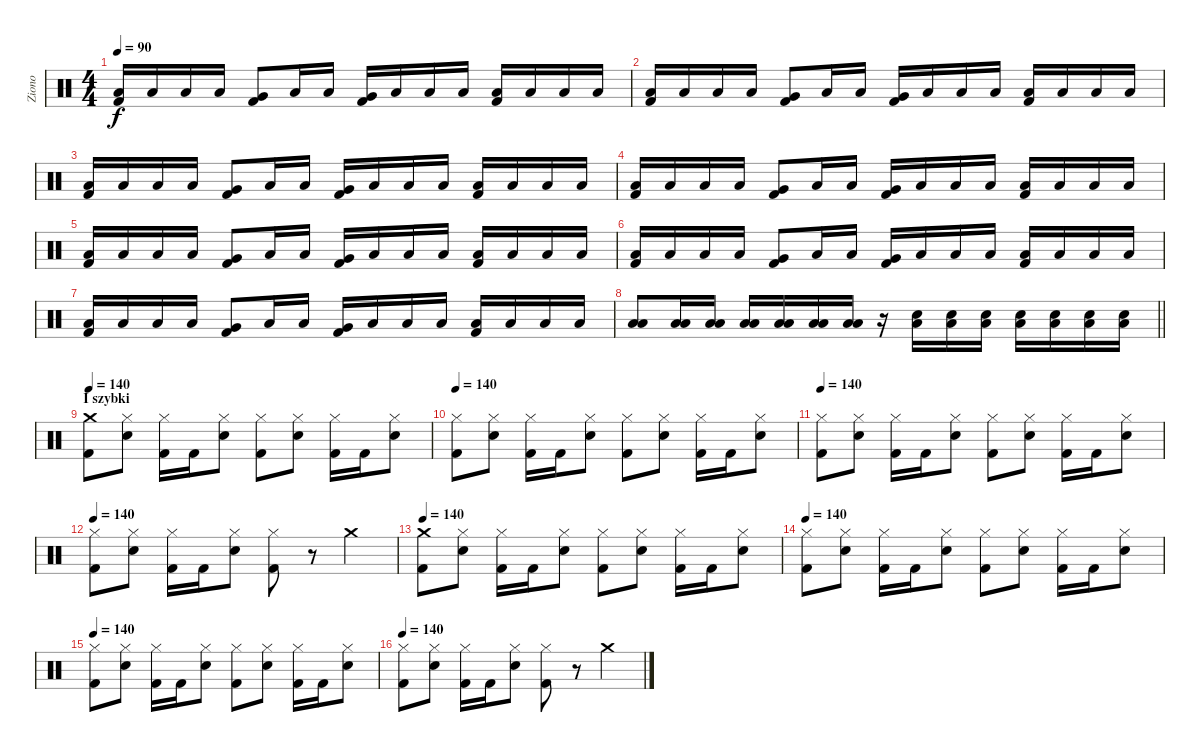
\track ("Ziono" "Ziono") {instrument percussion}
\staff {score}
\articulation defaults
\ts (4 4)
\tempo 90
\clef neutral
\ks c
("Low Floor Tom (hit)" "Kick (hit) 2").16{dy f} "Low Floor Tom (hit)".16 "Low Floor Tom (hit)".16 "Low Floor Tom (hit)".16 ("Very Low Tom (hit)" "Kick (hit) 2").8 "Low Floor Tom (hit)".16 "Low Floor Tom (hit)".16 ("Very Low Tom (hit)" "Kick (hit) 2").16 "Low Floor Tom (hit)".16 "Low Floor Tom (hit)".16 "Low Floor Tom (hit)".16 ("Low Floor Tom (hit)" "Kick (hit) 2").16 "Low Floor Tom (hit)".16 "Low Floor Tom (hit)".16 "Low Floor Tom (hit)".16 |
("Low Floor Tom (hit)" "Kick (hit) 2").16 "Low Floor Tom (hit)".16 "Low Floor Tom (hit)".16 "Low Floor Tom (hit)".16 ("Very Low Tom (hit)" "Kick (hit) 2").8 "Low Floor Tom (hit)".16 "Low Floor Tom (hit)".16 ("Very Low Tom (hit)" "Kick (hit) 2").16 "Low Floor Tom (hit)".16 "Low Floor Tom (hit)".16 "Low Floor Tom (hit)".16 ("Low Floor Tom (hit)" "Kick (hit) 2").16 "Low Floor Tom (hit)".16 "Low Floor Tom (hit)".16 "Low Floor Tom (hit)".16 |
("Low Floor Tom (hit)" "Kick (hit) 2").16 "Low Floor Tom (hit)".16 "Low Floor Tom (hit)".16 "Low Floor Tom (hit)".16 ("Very Low Tom (hit)" "Kick (hit) 2").8 "Low Floor Tom (hit)".16 "Low Floor Tom (hit)".16 ("Very Low Tom (hit)" "Kick (hit) 2").16 "Low Floor Tom (hit)".16 "Low Floor Tom (hit)".16 "Low Floor Tom (hit)".16 ("Low Floor Tom (hit)" "Kick (hit) 2").16 "Low Floor Tom (hit)".16 "Low Floor Tom (hit)".16 "Low Floor Tom (hit)".16 |
("Low Floor Tom (hit)" "Kick (hit) 2").16 "Low Floor Tom (hit)".16 "Low Floor Tom (hit)".16 "Low Floor Tom (hit)".16 ("Very Low Tom (hit)" "Kick (hit) 2").8 "Low Floor Tom (hit)".16 "Low Floor Tom (hit)".16 ("Very Low Tom (hit)" "Kick (hit) 2").16 "Low Floor Tom (hit)".16 "Low Floor Tom (hit)".16 "Low Floor Tom (hit)".16 ("Low Floor Tom (hit)" "Kick (hit) 2").16 "Low Floor Tom (hit)".16 "Low Floor Tom (hit)".16 "Low Floor Tom (hit)".16 |
("Low Floor Tom (hit)" "Kick (hit) 2").16 "Low Floor Tom (hit)".16 "Low Floor Tom (hit)".16 "Low Floor Tom (hit)".16 ("Very Low Tom (hit)" "Kick (hit) 2").8 "Low Floor Tom (hit)".16 "Low Floor Tom (hit)".16 ("Very Low Tom (hit)" "Kick (hit) 2").16 "Low Floor Tom (hit)".16 "Low Floor Tom (hit)".16 "Low Floor Tom (hit)".16 ("Low Floor Tom (hit)" "Kick (hit) 2").16 "Low Floor Tom (hit)".16 "Low Floor Tom (hit)".16 "Low Floor Tom (hit)".16 |
("Low Floor Tom (hit)" "Kick (hit) 2").16 "Low Floor Tom (hit)".16 "Low Floor Tom (hit)".16 "Low Floor Tom (hit)".16 ("Very Low Tom (hit)" "Kick (hit) 2").8 "Low Floor Tom (hit)".16 "Low Floor Tom (hit)".16 ("Very Low Tom (hit)" "Kick (hit) 2").16 "Low Floor Tom (hit)".16 "Low Floor Tom (hit)".16 "Low Floor Tom (hit)".16 ("Low Floor Tom (hit)" "Kick (hit) 2").16 "Low Floor Tom (hit)".16 "Low Floor Tom (hit)".16 "Low Floor Tom (hit)".16 |
("Low Floor Tom (hit)" "Kick (hit) 2").16 "Low Floor Tom (hit)".16 "Low Floor Tom (hit)".16 "Low Floor Tom (hit)".16 ("Very Low Tom (hit)" "Kick (hit) 2").8 "Low Floor Tom (hit)".16 "Low Floor Tom (hit)".16 ("Very Low Tom (hit)" "Kick (hit) 2").16 "Low Floor Tom (hit)".16 "Low Floor Tom (hit)".16 "Low Floor Tom (hit)".16 ("Low Floor Tom (hit)" "Kick (hit) 2").16 "Low Floor Tom (hit)".16 "Low Floor Tom (hit)".16 "Low Floor Tom (hit)".16 |
\barLineRight lightlight
("Low Floor Tom (hit)" "Low Floor Tom (hit)").8 ("Low Floor Tom (hit)" "Low Floor Tom (hit)").16 ("Low Floor Tom (hit)" "Low Floor Tom (hit)").16 ("Low Floor Tom (hit)" "Low Floor Tom (hit)").16 ("Low Floor Tom (hit)" "Low Floor Tom (hit)").16 ("Low Floor Tom (hit)" "Low Floor Tom (hit)").16 ("Low Floor Tom (hit)" "Low Floor Tom (hit)").16 r.16 ("Low Floor Tom (hit)" "Snare (hit) 2").16 ("Low Floor Tom (hit)" "Snare (hit) 2").16 ("Low Floor Tom (hit)" "Snare (hit) 2").16 ("Low Floor Tom (hit)" "Snare (hit) 2").16 ("Low Floor Tom (hit)" "Snare (hit) 2").16 ("Low Floor Tom (hit)" "Snare (hit) 2").16 ("Low Floor Tom (hit)" "Snare (hit) 2").16 |
\section ("" "I szybki")
\tempo 140
("Kick (hit) 2" "Crash medium (hit)").8 ("Hi-Hat (closed)" "Snare (hit) 2").8 ("Hi-Hat (closed)" "Kick (hit) 2").16 "Kick (hit) 2".16 ("Hi-Hat (closed)" "Snare (hit) 2").8 ("Hi-Hat (closed)" "Kick (hit) 2").8 ("Hi-Hat (closed)" "Snare (hit) 2").8 ("Hi-Hat (closed)" "Kick (hit) 2").16 "Kick (hit) 2".16 ("Hi-Hat (closed)" "Snare (hit) 2").8 |
\tempo 140
("Hi-Hat (closed)" "Kick (hit) 2").8 ("Hi-Hat (closed)" "Snare (hit) 2").8 ("Hi-Hat (closed)" "Kick (hit) 2").16 "Kick (hit) 2".16 ("Hi-Hat (closed)" "Snare (hit) 2").8 ("Hi-Hat (closed)" "Kick (hit) 2").8 ("Hi-Hat (closed)" "Snare (hit) 2").8 ("Hi-Hat (closed)" "Kick (hit) 2").16 "Kick (hit) 2".16 ("Hi-Hat (closed)" "Snare (hit) 2").8 |
\tempo 140
("Hi-Hat (closed)" "Kick (hit) 2").8 ("Hi-Hat (closed)" "Snare (hit) 2").8 ("Hi-Hat (closed)" "Kick (hit) 2").16 "Kick (hit) 2".16 ("Hi-Hat (closed)" "Snare (hit) 2").8 ("Hi-Hat (closed)" "Kick (hit) 2").8 ("Hi-Hat (closed)" "Snare (hit) 2").8 ("Hi-Hat (closed)" "Kick (hit) 2").16 "Kick (hit) 2".16 ("Hi-Hat (closed)" "Snare (hit) 2").8 |
\tempo 140
("Hi-Hat (closed)" "Kick (hit) 2").8 ("Hi-Hat (closed)" "Snare (hit) 2").8 ("Hi-Hat (closed)" "Kick (hit) 2").16 "Kick (hit) 2".16 ("Hi-Hat (closed)" "Snare (hit) 2").8 ("Hi-Hat (closed)" "Kick (hit) 2").8 r.8 "Crash medium (hit)".4 |
\tempo 140
("Kick (hit) 2" "Crash medium (hit)").8 ("Hi-Hat (closed)" "Snare (hit) 2").8 ("Hi-Hat (closed)" "Kick (hit) 2").16 "Kick (hit) 2".16 ("Hi-Hat (closed)" "Snare (hit) 2").8 ("Hi-Hat (closed)" "Kick (hit) 2").8 ("Hi-Hat (closed)" "Snare (hit) 2").8 ("Hi-Hat (closed)" "Kick (hit) 2").16 "Kick (hit) 2".16 ("Hi-Hat (closed)" "Snare (hit) 2").8 |
\tempo 140
("Hi-Hat (closed)" "Kick (hit) 2").8 ("Hi-Hat (closed)" "Snare (hit) 2").8 ("Hi-Hat (closed)" "Kick (hit) 2").16 "Kick (hit) 2".16 ("Hi-Hat (closed)" "Snare (hit) 2").8 ("Hi-Hat (closed)" "Kick (hit) 2").8 ("Hi-Hat (closed)" "Snare (hit) 2").8 ("Hi-Hat (closed)" "Kick (hit) 2").16 "Kick (hit) 2".16 ("Hi-Hat (closed)" "Snare (hit) 2").8 |
\tempo 140
("Hi-Hat (closed)" "Kick (hit) 2").8 ("Hi-Hat (closed)" "Snare (hit) 2").8 ("Hi-Hat (closed)" "Kick (hit) 2").16 "Kick (hit) 2".16 ("Hi-Hat (closed)" "Snare (hit) 2").8 ("Hi-Hat (closed)" "Kick (hit) 2").8 ("Hi-Hat (closed)" "Snare (hit) 2").8 ("Hi-Hat (closed)" "Kick (hit) 2").16 "Kick (hit) 2".16 ("Hi-Hat (closed)" "Snare (hit) 2").8 |
\tempo 140
("Hi-Hat (closed)" "Kick (hit) 2").8 ("Hi-Hat (closed)" "Snare (hit) 2").8 ("Hi-Hat (closed)" "Kick (hit) 2").16 "Kick (hit) 2".16 ("Hi-Hat (closed)" "Snare (hit) 2").8 ("Hi-Hat (closed)" "Kick (hit) 2").8 r.8 "Crash medium (hit)".4
